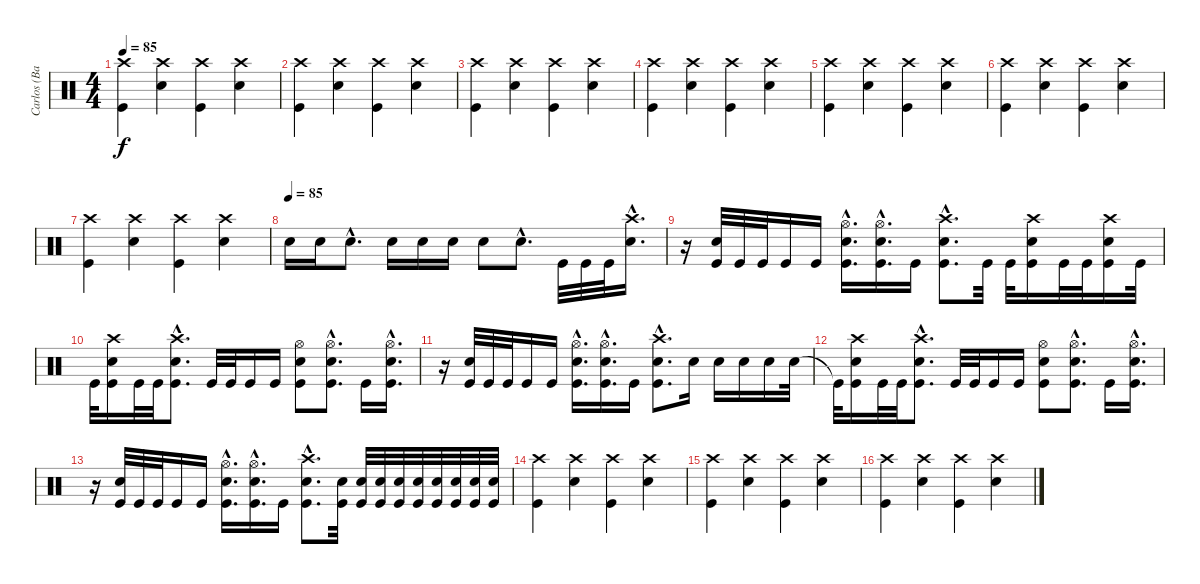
\track ("Carlos (Batería)" "Carlos (Ba") {instrument percussion}
\staff {score}
\articulation defaults
\ts (4 4)
\tempo 85
\clef neutral
\ks c
("Crash high (hit)" "Kick (hit)").4{dy f} ("Crash high (hit)" "Snare (hit) 2").4 ("Crash high (hit)" "Kick (hit)").4 ("Crash high (hit)" "Snare (hit) 2").4 |
("Crash high (hit)" "Kick (hit)").4 ("Crash high (hit)" "Snare (hit) 2").4 ("Crash high (hit)" "Kick (hit)").4 ("Crash high (hit)" "Snare (hit) 2").4 |
("Crash high (hit)" "Kick (hit)").4 ("Crash high (hit)" "Snare (hit) 2").4 ("Crash high (hit)" "Kick (hit)").4 ("Crash high (hit)" "Snare (hit) 2").4 |
("Crash high (hit)" "Kick (hit)").4 ("Crash high (hit)" "Snare (hit) 2").4 ("Crash high (hit)" "Kick (hit)").4 ("Crash high (hit)" "Snare (hit) 2").4 |
("Crash high (hit)" "Kick (hit)").4 ("Crash high (hit)" "Snare (hit) 2").4 ("Crash high (hit)" "Kick (hit)").4 ("Crash high (hit)" "Snare (hit) 2").4 |
("Crash high (hit)" "Kick (hit)").4 ("Crash high (hit)" "Snare (hit) 2").4 ("Crash high (hit)" "Kick (hit)").4 ("Crash high (hit)" "Snare (hit) 2").4 |
("Crash high (hit)" "Kick (hit)").4 ("Crash high (hit)" "Snare (hit) 2").4 ("Crash high (hit)" "Kick (hit)").4 ("Crash high (hit)" "Snare (hit) 2").4 |
\tempo (85)
"Snare (hit) 2".16 "Snare (hit) 2".16 "Snare (hit) 2"{hac}.8{d} "Snare (hit) 2".16 "Snare (hit) 2".16 "Snare (hit) 2".16 "Snare (hit) 2".8 "Snare (hit) 2"{hac}.8{d} "Kick (hit)".32 "Kick (hit)".32 "Kick (hit)".32 ("Crash high (hit)"{hac} "Snare (hit) 2"{hac}).16{d} |
r.16 ("Snare (hit) 2" "Kick (hit)").32 "Kick (hit)".32 "Kick (hit)".32 "Kick (hit)".16 "Kick (hit)".16 ("Kick (hit)"{hac} "Snare (hit) 2"{hac} "Hi-Hat (open)"{hac}).16{d} ("Kick (hit)"{hac} "Snare (hit) 2"{hac} "Hi-Hat (open)"{hac}).16{d} "Kick (hit)".16 ("Kick (hit)"{hac} "Snare (hit) 2"{hac} "Crash high (hit)"{hac}).8{d} "Kick (hit)".32 "Kick (hit)".32 ("Kick (hit)" "Snare (hit) 2" "Crash high (hit)").16 "Kick (hit)".32 "Kick (hit)".32 ("Kick (hit)" "Snare (hit) 2" "Crash high (hit)").16 "Kick (hit)".32 |
"Kick (hit)".32 ("Kick (hit)" "Snare (hit) 2" "Crash high (hit)").16 "Kick (hit)".32 "Kick (hit)".32 ("Kick (hit)"{hac} "Snare (hit) 2"{hac} "Crash high (hit)"{hac}).8{d} "Kick (hit)".32 "Kick (hit)".32 "Kick (hit)".16 "Kick (hit)".16 ("Kick (hit)" "Snare (hit) 2" "Hi-Hat (open)").8 ("Kick (hit)"{hac} "Snare (hit) 2"{hac} "Hi-Hat (open)"{hac}).8{d} "Kick (hit)".16 ("Kick (hit)"{hac} "Snare (hit) 2"{hac} "Hi-Hat (open)"{hac}).16{d} |
r.16 ("Snare (hit) 2" "Kick (hit)").32 "Kick (hit)".32 "Kick (hit)".32 "Kick (hit)".16 "Kick (hit)".16 ("Kick (hit)"{hac} "Snare (hit) 2"{hac} "Hi-Hat (open)"{hac}).16{d} ("Kick (hit)"{hac} "Snare (hit) 2"{hac} "Hi-Hat (open)"{hac}).16{d} "Kick (hit)".16 ("Kick (hit)"{hac} "Snare (hit) 2"{hac} "Crash high (hit)"{hac}).8{d} "Snare (hit) 2".16 "Snare (hit) 2".16 "Snare (hit) 2".16 "Snare (hit) 2".16 "Snare (hit) 2".32 |
"Kick (hit)"{t}.32 ("Kick (hit)" "Snare (hit) 2" "Crash high (hit)").16 "Kick (hit)".32 "Kick (hit)".32 ("Kick (hit)"{hac} "Snare (hit) 2"{hac} "Crash high (hit)"{hac}).8{d} "Kick (hit)".32 "Kick (hit)".32 "Kick (hit)".16 "Kick (hit)".16 ("Kick (hit)" "Snare (hit) 2" "Hi-Hat (open)").8 ("Kick (hit)"{hac} "Snare (hit) 2"{hac} "Hi-Hat (open)"{hac}).8{d} "Kick (hit)".16 ("Kick (hit)"{hac} "Snare (hit) 2"{hac} "Hi-Hat (open)"{hac}).16{d} |
r.16 ("Snare (hit) 2" "Kick (hit)").32 "Kick (hit)".32 "Kick (hit)".32 "Kick (hit)".16 "Kick (hit)".16 ("Kick (hit)"{hac} "Snare (hit) 2"{hac} "Hi-Hat (open)"{hac}).16{d} ("Kick (hit)"{hac} "Snare (hit) 2"{hac} "Hi-Hat (open)"{hac}).16{d} "Kick (hit)".16 ("Kick (hit)"{hac} "Snare (hit) 2"{hac} "Crash high (hit)"{hac}).8{d} ("Snare (hit) 2" "Kick (hit)").32 ("Snare (hit) 2" "Kick (hit)").32 ("Snare (hit) 2" "Kick (hit)").32 ("Snare (hit) 2" "Kick (hit)").32 ("Snare (hit) 2" "Kick (hit)").32 ("Snare (hit) 2" "Kick (hit)").32 ("Snare (hit) 2" "Kick (hit)").32 ("Snare (hit) 2" "Kick (hit)").32 ("Snare (hit) 2" "Kick (hit)").32 |
("Crash high (hit)" "Kick (hit)").4 ("Crash high (hit)" "Snare (hit) 2").4 ("Crash high (hit)" "Kick (hit)").4 ("Crash high (hit)" "Snare (hit) 2").4 |
("Crash high (hit)" "Kick (hit)").4 ("Crash high (hit)" "Snare (hit) 2").4 ("Crash high (hit)" "Kick (hit)").4 ("Crash high (hit)" "Snare (hit) 2").4 |
("Crash high (hit)" "Kick (hit)").4 ("Crash high (hit)" "Snare (hit) 2").4 ("Crash high (hit)" "Kick (hit)").4 ("Crash high (hit)" "Snare (hit) 2").4
